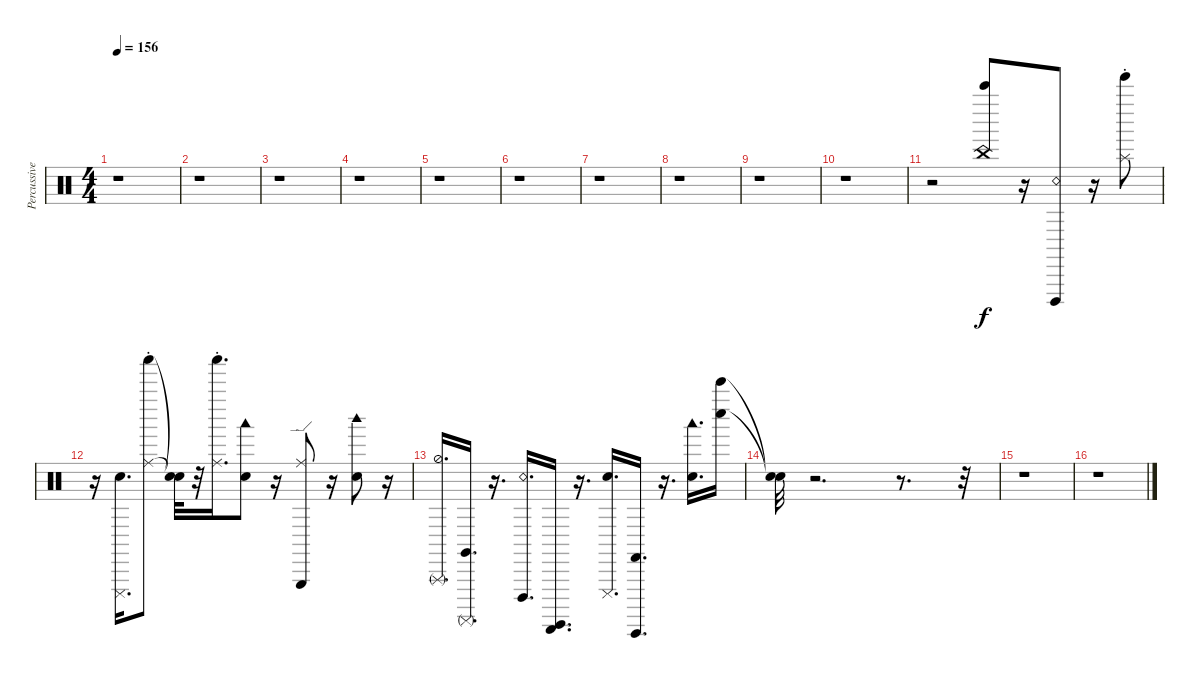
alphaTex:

\track ("Percussive Organ" "Percussive") {instrument percussion}
\staff {score}
\articulation defaults
\ts (4 4)
\tempo 156
\clef neutral
\ks c
r.1{dy f} |
r.1 |
r.1 |
r.1 |
r.1 |
r.1 |
r.1 |
r.1 |
r.1 |
r.1 |
r.2 ("Bell Tree (hit)" "China (choke)").8 r.16 ("Cuica (open)" "Snare (rim shot)").8 r.16 ("Tinkle Bell (hit)" "Splash (choke)").8 |
r.16 ("Cuica (mute)" "Snare (hit)").16{d} ("Shaker (hit)" "Ride (choke)").8 ("Snare (hit)"{t} "Snare (hit)"{t}).32 r.32 ("Shaker (hit)" "Ride (choke)").16{d} ("Woodblock low (hit)" "Snare (hit)").8 r.16 ("Triangle (hit)" "Ride (edge)").8 r.16 ("Woodblock high (hit)" "Snare (hit)").8 r.16 |
("Triangle (rnute)" "Hi-Hat (half)").16{d} ("Claves (hit)" "Surdo (mute)").16{d} r.16{d} ("Cuica (open)" "Snare (rim shot)").16{d} ("Guiro (scrap-return)" "Surdo (hit)").16{d} r.16{d} ("Cuica (mute)" "Snare (hit)").16{d} ("Guiro (hit)" "Castanets (hit)").16{d} r.16{d} ("Woodblock low (hit)" "Snare (hit)").16{d} ("Whistle low (hit)" "Bell Tree (hit)").16 |
("Snare (hit)"{t} "Snare (hit)"{t}).32 r.2{d} r.8{d} r.32 |
r.1 |
r.1
